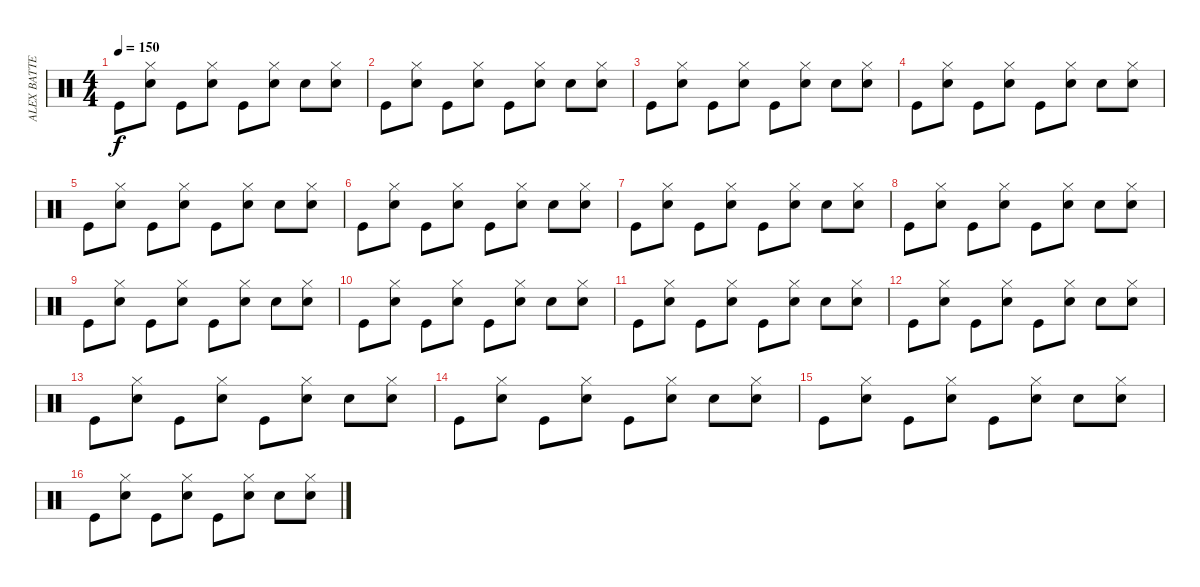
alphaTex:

\track ("ALEX BATTERIE" "ALEX BATTE") {instrument percussion}
\staff {score}
\articulation defaults
\ts (4 4)
\tempo 150
\clef neutral
\ks c "Kick (hit)".8{dy f}
("Hi-Hat (closed)" "Electric Snare (hit)").8 "Kick (hit)".8 ("Hi-Hat (closed)" "Electric Snare (hit)").8 "Kick (hit)".8 ("Hi-Hat (closed)" "Electric Snare (hit)").8 "Metronome (bell)".8 ("Hi-Hat (closed)" "Electric Snare (hit)").8 |
"Kick (hit)".8 ("Hi-Hat (closed)" "Electric Snare (hit)").8 "Kick (hit)".8 ("Hi-Hat (closed)" "Electric Snare (hit)").8 "Kick (hit)".8 ("Hi-Hat (closed)" "Electric Snare (hit)").8 "Metronome (bell)".8 ("Hi-Hat (closed)" "Electric Snare (hit)").8 |
"Kick (hit)".8 ("Hi-Hat (closed)" "Electric Snare (hit)").8 "Kick (hit)".8 ("Hi-Hat (closed)" "Electric Snare (hit)").8 "Kick (hit)".8 ("Hi-Hat (closed)" "Electric Snare (hit)").8 "Metronome (bell)".8 ("Hi-Hat (closed)" "Electric Snare (hit)").8 |
"Kick (hit)".8 ("Hi-Hat (closed)" "Electric Snare (hit)").8 "Kick (hit)".8 ("Hi-Hat (closed)" "Electric Snare (hit)").8 "Kick (hit)".8 ("Hi-Hat (closed)" "Electric Snare (hit)").8 "Metronome (bell)".8 ("Hi-Hat (closed)" "Electric Snare (hit)").8 |
"Kick (hit)".8 ("Hi-Hat (closed)" "Electric Snare (hit)").8 "Kick (hit)".8 ("Hi-Hat (closed)" "Electric Snare (hit)").8 "Kick (hit)".8 ("Hi-Hat (closed)" "Electric Snare (hit)").8 "Metronome (bell)".8 ("Hi-Hat (closed)" "Electric Snare (hit)").8 |
"Kick (hit)".8 ("Hi-Hat (closed)" "Electric Snare (hit)").8 "Kick (hit)".8 ("Hi-Hat (closed)" "Electric Snare (hit)").8 "Kick (hit)".8 ("Hi-Hat (closed)" "Electric Snare (hit)").8 "Metronome (bell)".8 ("Hi-Hat (closed)" "Electric Snare (hit)").8 |
"Kick (hit)".8 ("Hi-Hat (closed)" "Electric Snare (hit)").8 "Kick (hit)".8 ("Hi-Hat (closed)" "Electric Snare (hit)").8 "Kick (hit)".8 ("Hi-Hat (closed)" "Electric Snare (hit)").8 "Metronome (bell)".8 ("Hi-Hat (closed)" "Electric Snare (hit)").8 |
"Kick (hit)".8 ("Hi-Hat (closed)" "Electric Snare (hit)").8 "Kick (hit)".8 ("Hi-Hat (closed)" "Electric Snare (hit)").8 "Kick (hit)".8 ("Hi-Hat (closed)" "Electric Snare (hit)").8 "Metronome (bell)".8 ("Hi-Hat (closed)" "Electric Snare (hit)").8 |
"Kick (hit)".8 ("Hi-Hat (closed)" "Electric Snare (hit)").8 "Kick (hit)".8 ("Hi-Hat (closed)" "Electric Snare (hit)").8 "Kick (hit)".8 ("Hi-Hat (closed)" "Electric Snare (hit)").8 "Metronome (bell)".8 ("Hi-Hat (closed)" "Electric Snare (hit)").8 |
"Kick (hit)".8 ("Hi-Hat (closed)" "Electric Snare (hit)").8 "Kick (hit)".8 ("Hi-Hat (closed)" "Electric Snare (hit)").8 "Kick (hit)".8 ("Hi-Hat (closed)" "Electric Snare (hit)").8 "Metronome (bell)".8 ("Hi-Hat (closed)" "Electric Snare (hit)").8 |
"Kick (hit)".8 ("Hi-Hat (closed)" "Electric Snare (hit)").8 "Kick (hit)".8 ("Hi-Hat (closed)" "Electric Snare (hit)").8 "Kick (hit)".8 ("Hi-Hat (closed)" "Electric Snare (hit)").8 "Metronome (bell)".8 ("Hi-Hat (closed)" "Electric Snare (hit)").8 |
"Kick (hit)".8 ("Hi-Hat (closed)" "Electric Snare (hit)").8 "Kick (hit)".8 ("Hi-Hat (closed)" "Electric Snare (hit)").8 "Kick (hit)".8 ("Hi-Hat (closed)" "Electric Snare (hit)").8 "Metronome (bell)".8 ("Hi-Hat (closed)" "Electric Snare (hit)").8 |
"Kick (hit)".8 ("Hi-Hat (closed)" "Electric Snare (hit)").8 "Kick (hit)".8 ("Hi-Hat (closed)" "Electric Snare (hit)").8 "Kick (hit)".8 ("Hi-Hat (closed)" "Electric Snare (hit)").8 "Metronome (bell)".8 ("Hi-Hat (closed)" "Electric Snare (hit)").8 |
"Kick (hit)".8 ("Hi-Hat (closed)" "Electric Snare (hit)").8 "Kick (hit)".8 ("Hi-Hat (closed)" "Electric Snare (hit)").8 "Kick (hit)".8 ("Hi-Hat (closed)" "Electric Snare (hit)").8 "Metronome (bell)".8 ("Hi-Hat (closed)" "Electric Snare (hit)").8 |
"Kick (hit)".8 ("Hi-Hat (closed)" "Electric Snare (hit)").8 "Kick (hit)".8 ("Hi-Hat (closed)" "Electric Snare (hit)").8 "Kick (hit)".8 ("Hi-Hat (closed)" "Electric Snare (hit)").8 "Metronome (bell)".8 ("Hi-Hat (closed)" "Electric Snare (hit)").8 |
"Kick (hit)".8 ("Hi-Hat (closed)" "Electric Snare (hit)").8 "Kick (hit)".8 ("Hi-Hat (closed)" "Electric Snare (hit)").8 "Kick (hit)".8 ("Hi-Hat (closed)" "Electric Snare (hit)").8 "Metronome (bell)".8 ("Hi-Hat (closed)" "Electric Snare (hit)").8
